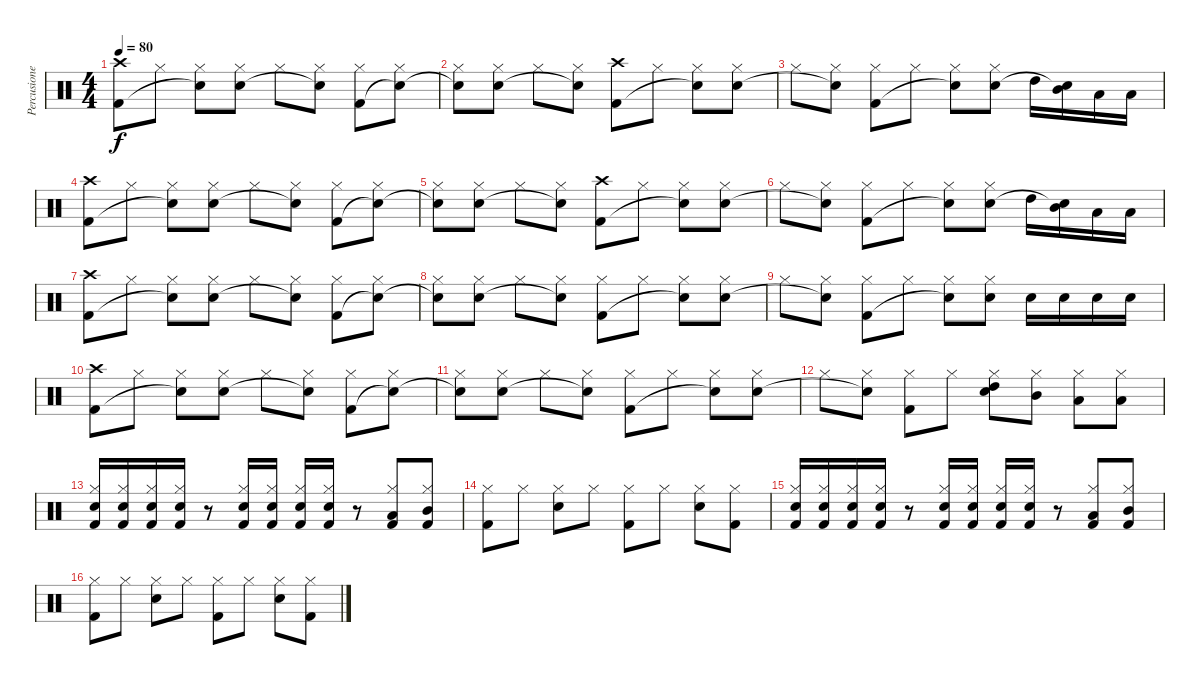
\track ("Percusiones" "Percusione") {instrument percussion}
\staff {score}
\articulation defaults
\ts (4 4)
\tempo 80
\clef neutral
\ks c
("Crash high (hit)" "Kick (hit) 2").8{dy f} "Hi-Hat (closed)".8 ("Hi-Hat (closed)" "Snare (hit)"{t}).8 ("Hi-Hat (closed)" "Electric Snare (hit)").8 "Hi-Hat (closed)".8 ("Hi-Hat (closed)" "Snare (hit)"{t}).8 ("Hi-Hat (closed)" "Kick (hit) 2").8 ("Hi-Hat (closed)" "Snare (hit)"{t}).8 |
("Hi-Hat (closed)" "Snare (hit)"{t}).8 ("Hi-Hat (closed)" "Electric Snare (hit)").8 "Hi-Hat (closed)".8 ("Hi-Hat (closed)" "Snare (hit)"{t}).8 ("Crash high (hit)" "Kick (hit) 2").8 "Hi-Hat (closed)".8 ("Hi-Hat (closed)" "Snare (hit)"{t}).8 ("Hi-Hat (closed)" "Electric Snare (hit)").8 |
"Hi-Hat (closed)".8 ("Hi-Hat (closed)" "Snare (hit)"{t}).8 ("Hi-Hat (closed)" "Kick (hit) 2").8 "Hi-Hat (closed)".8 ("Hi-Hat (closed)" "Snare (hit)"{t}).8 ("Hi-Hat (closed)" "Electric Snare (hit)").8 "High Tom (hit)".16 ("Mid Tom (hit)" "Snare (hit)"{t}).16 "Low Tom (hit)".16 "Low Tom (hit)".16 |
("Crash high (hit)" "Kick (hit) 2").8 "Hi-Hat (closed)".8 ("Hi-Hat (closed)" "Snare (hit)"{t}).8 ("Hi-Hat (closed)" "Electric Snare (hit)").8 "Hi-Hat (closed)".8 ("Hi-Hat (closed)" "Snare (hit)"{t}).8 ("Hi-Hat (closed)" "Kick (hit) 2").8 ("Hi-Hat (closed)" "Snare (hit)"{t}).8 |
("Hi-Hat (closed)" "Snare (hit)"{t}).8 ("Hi-Hat (closed)" "Electric Snare (hit)").8 "Hi-Hat (closed)".8 ("Hi-Hat (closed)" "Snare (hit)"{t}).8 ("Crash high (hit)" "Kick (hit) 2").8 "Hi-Hat (closed)".8 ("Hi-Hat (closed)" "Snare (hit)"{t}).8 ("Hi-Hat (closed)" "Electric Snare (hit)").8 |
"Hi-Hat (closed)".8 ("Hi-Hat (closed)" "Snare (hit)"{t}).8 ("Hi-Hat (closed)" "Kick (hit) 2").8 "Hi-Hat (closed)".8 ("Hi-Hat (closed)" "Snare (hit)"{t}).8 ("Hi-Hat (closed)" "Electric Snare (hit)").8 "High Tom (hit)".16 ("Mid Tom (hit)" "Snare (hit)"{t}).16 "Low Tom (hit)".16 "Low Tom (hit)".16 |
("Crash high (hit)" "Kick (hit) 2").8 "Hi-Hat (closed)".8 ("Hi-Hat (closed)" "Snare (hit)"{t}).8 ("Hi-Hat (closed)" "Electric Snare (hit)").8 "Hi-Hat (closed)".8 ("Hi-Hat (closed)" "Snare (hit)"{t}).8 ("Hi-Hat (closed)" "Kick (hit) 2").8 ("Hi-Hat (closed)" "Snare (hit)"{t}).8 |
("Hi-Hat (closed)" "Snare (hit)"{t}).8 ("Hi-Hat (closed)" "Electric Snare (hit)").8 "Hi-Hat (closed)".8 ("Hi-Hat (closed)" "Snare (hit)"{t}).8 ("Hi-Hat (closed)" "Kick (hit) 2").8 "Hi-Hat (closed)".8 ("Hi-Hat (closed)" "Snare (hit)"{t}).8 ("Hi-Hat (closed)" "Electric Snare (hit)").8 |
"Hi-Hat (closed)".8 ("Hi-Hat (closed)" "Snare (hit)"{t}).8 ("Hi-Hat (closed)" "Kick (hit) 2").8 "Hi-Hat (closed)".8 ("Hi-Hat (closed)" "Snare (hit)"{t}).8 ("Hi-Hat (closed)" "Electric Snare (hit)").8 "Electric Snare (hit)".16 "Electric Snare (hit)".16 "Electric Snare (hit)".16 "Electric Snare (hit)".16 |
("Crash high (hit)" "Kick (hit) 2").8 "Hi-Hat (closed)".8 ("Hi-Hat (closed)" "Snare (hit)"{t}).8 ("Hi-Hat (closed)" "Electric Snare (hit)").8 "Hi-Hat (closed)".8 ("Hi-Hat (closed)" "Snare (hit)"{t}).8 ("Hi-Hat (closed)" "Kick (hit) 2").8 ("Hi-Hat (closed)" "Snare (hit)"{t}).8 |
("Hi-Hat (closed)" "Snare (hit)"{t}).8 ("Hi-Hat (closed)" "Electric Snare (hit)").8 "Hi-Hat (closed)".8 ("Hi-Hat (closed)" "Snare (hit)"{t}).8 ("Hi-Hat (closed)" "Kick (hit) 2").8 "Hi-Hat (closed)".8 ("Hi-Hat (closed)" "Snare (hit)"{t}).8 ("Hi-Hat (closed)" "Electric Snare (hit)").8 |
"Hi-Hat (closed)".8 ("Hi-Hat (closed)" "Snare (hit)"{t}).8 ("Hi-Hat (closed)" "Kick (hit) 2").8 "Hi-Hat (closed)".8 ("Hi-Hat (closed)" "High Tom (hit)" "Snare (hit)").8 ("Hi-Hat (closed)" "Mid Tom (hit)").8 ("Hi-Hat (closed)" "Low Tom (hit)").8 ("Hi-Hat (closed)" "Low Tom (hit)").8 |
("Hi-Hat (closed)" "Electric Snare (hit)" "Kick (hit) 2").16 ("Hi-Hat (closed)" "Electric Snare (hit)" "Kick (hit) 2").16 ("Hi-Hat (closed)" "Electric Snare (hit)" "Kick (hit) 2").16 ("Hi-Hat (closed)" "Electric Snare (hit)" "Kick (hit) 2").16 r.8 ("Hi-Hat (closed)" "Electric Snare (hit)" "Kick (hit) 2").16 ("Hi-Hat (closed)" "Electric Snare (hit)" "Kick (hit) 2").16 ("Hi-Hat (closed)" "Electric Snare (hit)" "Kick (hit) 2").16 ("Hi-Hat (closed)" "Electric Snare (hit)" "Kick (hit) 2").16 r.8 ("Hi-Hat (closed)" "Low Tom (hit)" "Kick (hit) 2").8 ("Hi-Hat (closed)" "Mid Tom (hit)" "Kick (hit) 2").8 |
("Hi-Hat (closed)" "Kick (hit) 2").8 "Hi-Hat (closed)".8 ("Hi-Hat (closed)" "Electric Snare (hit)").8 "Hi-Hat (closed)".8 ("Hi-Hat (closed)" "Kick (hit) 2").8 "Hi-Hat (closed)".8 ("Hi-Hat (closed)" "Electric Snare (hit)").8 ("Hi-Hat (closed)" "Kick (hit) 2").8 |
("Hi-Hat (closed)" "Electric Snare (hit)" "Kick (hit) 2").16 ("Hi-Hat (closed)" "Electric Snare (hit)" "Kick (hit) 2").16 ("Hi-Hat (closed)" "Electric Snare (hit)" "Kick (hit) 2").16 ("Hi-Hat (closed)" "Electric Snare (hit)" "Kick (hit) 2").16 r.8 ("Hi-Hat (closed)" "Electric Snare (hit)" "Kick (hit) 2").16 ("Hi-Hat (closed)" "Electric Snare (hit)" "Kick (hit) 2").16 ("Hi-Hat (closed)" "Electric Snare (hit)" "Kick (hit) 2").16 ("Hi-Hat (closed)" "Electric Snare (hit)" "Kick (hit) 2").16 r.8 ("Hi-Hat (closed)" "Low Tom (hit)" "Kick (hit) 2").8 ("Hi-Hat (closed)" "Mid Tom (hit)" "Kick (hit) 2").8 |
("Hi-Hat (closed)" "Kick (hit) 2").8 "Hi-Hat (closed)".8 ("Hi-Hat (closed)" "Electric Snare (hit)").8 "Hi-Hat (closed)".8 ("Hi-Hat (closed)" "Kick (hit) 2").8 "Hi-Hat (closed)".8 ("Hi-Hat (closed)" "Electric Snare (hit)").8 ("Hi-Hat (closed)" "Kick (hit) 2").8
